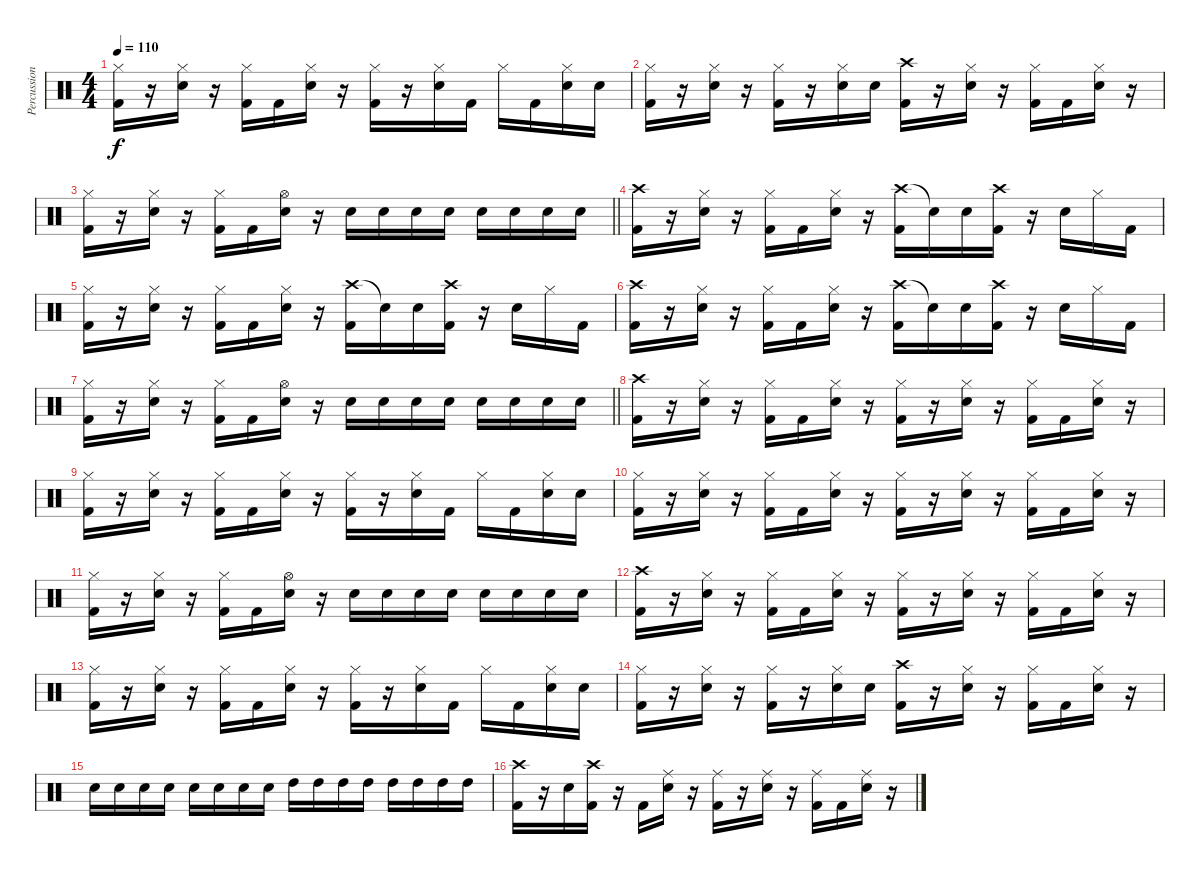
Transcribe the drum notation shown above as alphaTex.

\track ("Percussion" "Percussion") {instrument percussion}
\staff {score}
\articulation defaults
\ts (4 4)
\tempo 110
\clef neutral
\ks c
("Hi-Hat (closed)" "Kick (hit) 2").16{dy f} r.16 ("Hi-Hat (closed)" "Electric Snare (hit)").16 r.16 ("Hi-Hat (closed)" "Kick (hit) 2").16 "Kick (hit) 2".16 ("Hi-Hat (closed)" "Electric Snare (hit)").16 r.16 ("Hi-Hat (closed)" "Kick (hit) 2").16 r.16 ("Hi-Hat (closed)" "Electric Snare (hit)").16 "Kick (hit) 2".16 "Hi-Hat (closed)".16 "Kick (hit) 2".16 ("Hi-Hat (closed)" "Electric Snare (hit)").16 "Electric Snare (hit)".16 |
("Hi-Hat (closed)" "Kick (hit) 2").16 r.16 ("Hi-Hat (closed)" "Electric Snare (hit)").16 r.16 ("Hi-Hat (closed)" "Kick (hit) 2").16 r.16 ("Hi-Hat (closed)" "Electric Snare (hit)").16 "Electric Snare (hit)".16 ("Crash high (hit)" "Kick (hit) 2").16 r.16 ("Hi-Hat (closed)" "Electric Snare (hit)").16 r.16 ("Hi-Hat (closed)" "Kick (hit) 2").16 "Kick (hit) 2".16 ("Hi-Hat (closed)" "Electric Snare (hit)").16 r.16 |
\barLineRight lightlight
("Hi-Hat (closed)" "Kick (hit) 2").16 r.16 ("Hi-Hat (closed)" "Electric Snare (hit)").16 r.16 ("Hi-Hat (closed)" "Kick (hit) 2").16 "Kick (hit) 2".16 ("Hi-Hat (open)" "Electric Snare (hit)").16 r.16 "Electric Snare (hit)".16 "Electric Snare (hit)".16 "Electric Snare (hit)".16 "Electric Snare (hit)".16 "Electric Snare (hit)".16 "Electric Snare (hit)".16 "Electric Snare (hit)".16 "Electric Snare (hit)".16 |
("Crash high (hit)" "Kick (hit) 2").16 r.16 ("Hi-Hat (closed)" "Electric Snare (hit)").16 r.16 ("Hi-Hat (closed)" "Kick (hit) 2").16 "Kick (hit) 2".16 ("Hi-Hat (closed)" "Electric Snare (hit)").16 r.16 ("Crash high (hit)" "Kick (hit) 2").16 "Snare (hit)"{t}.16 "Electric Snare (hit)".16 ("Crash high (hit)" "Kick (hit) 2").16 r.16 "Electric Snare (hit)".16 "Hi-Hat (closed)".16 "Kick (hit) 2".16 |
("Hi-Hat (closed)" "Kick (hit) 2").16 r.16 ("Hi-Hat (closed)" "Electric Snare (hit)").16 r.16 ("Hi-Hat (closed)" "Kick (hit) 2").16 "Kick (hit) 2".16 ("Hi-Hat (closed)" "Electric Snare (hit)").16 r.16 ("Crash high (hit)" "Kick (hit) 2").16 "Snare (hit)"{t}.16 "Electric Snare (hit)".16 ("Crash high (hit)" "Kick (hit) 2").16 r.16 "Electric Snare (hit)".16 "Hi-Hat (closed)".16 "Kick (hit) 2".16 |
("Crash high (hit)" "Kick (hit) 2").16 r.16 ("Hi-Hat (closed)" "Electric Snare (hit)").16 r.16 ("Hi-Hat (closed)" "Kick (hit) 2").16 "Kick (hit) 2".16 ("Hi-Hat (closed)" "Electric Snare (hit)").16 r.16 ("Crash high (hit)" "Kick (hit) 2").16 "Snare (hit)"{t}.16 "Electric Snare (hit)".16 ("Crash high (hit)" "Kick (hit) 2").16 r.16 "Electric Snare (hit)".16 "Hi-Hat (closed)".16 "Kick (hit) 2".16 |
\barLineRight lightlight
("Hi-Hat (closed)" "Kick (hit) 2").16 r.16 ("Hi-Hat (closed)" "Electric Snare (hit)").16 r.16 ("Hi-Hat (closed)" "Kick (hit) 2").16 "Kick (hit) 2".16 ("Hi-Hat (open)" "Electric Snare (hit)").16 r.16 "Electric Snare (hit)".16 "Electric Snare (hit)".16 "Electric Snare (hit)".16 "Electric Snare (hit)".16 "Electric Snare (hit)".16 "Electric Snare (hit)".16 "Electric Snare (hit)".16 "Electric Snare (hit)".16 |
("Crash high (hit)" "Kick (hit) 2").16 r.16 ("Hi-Hat (closed)" "Electric Snare (hit)").16 r.16 ("Hi-Hat (closed)" "Kick (hit) 2").16 "Kick (hit) 2".16 ("Hi-Hat (closed)" "Electric Snare (hit)").16 r.16 ("Hi-Hat (closed)" "Kick (hit) 2").16 r.16 ("Hi-Hat (closed)" "Electric Snare (hit)").16 r.16 ("Hi-Hat (closed)" "Kick (hit) 2").16 "Kick (hit) 2".16 ("Hi-Hat (closed)" "Electric Snare (hit)").16 r.16 |
("Hi-Hat (closed)" "Kick (hit) 2").16 r.16 ("Hi-Hat (closed)" "Electric Snare (hit)").16 r.16 ("Hi-Hat (closed)" "Kick (hit) 2").16 "Kick (hit) 2".16 ("Hi-Hat (closed)" "Electric Snare (hit)").16 r.16 ("Hi-Hat (closed)" "Kick (hit) 2").16 r.16 ("Hi-Hat (closed)" "Electric Snare (hit)").16 "Kick (hit) 2".16 "Hi-Hat (closed)".16 "Kick (hit) 2".16 ("Hi-Hat (closed)" "Electric Snare (hit)").16 "Electric Snare (hit)".16 |
("Hi-Hat (closed)" "Kick (hit) 2").16 r.16 ("Hi-Hat (closed)" "Electric Snare (hit)").16 r.16 ("Hi-Hat (closed)" "Kick (hit) 2").16 "Kick (hit) 2".16 ("Hi-Hat (closed)" "Electric Snare (hit)").16 r.16 ("Hi-Hat (closed)" "Kick (hit) 2").16 r.16 ("Hi-Hat (closed)" "Electric Snare (hit)").16 r.16 ("Hi-Hat (closed)" "Kick (hit) 2").16 "Kick (hit) 2".16 ("Hi-Hat (closed)" "Electric Snare (hit)").16 r.16 |
("Hi-Hat (closed)" "Kick (hit) 2").16 r.16 ("Hi-Hat (closed)" "Electric Snare (hit)").16 r.16 ("Hi-Hat (closed)" "Kick (hit) 2").16 "Kick (hit) 2".16 ("Hi-Hat (open)" "Electric Snare (hit)").16 r.16 "Electric Snare (hit)".16 "Electric Snare (hit)".16 "Electric Snare (hit)".16 "Electric Snare (hit)".16 "Electric Snare (hit)".16 "Electric Snare (hit)".16 "Electric Snare (hit)".16 "Electric Snare (hit)".16 |
("Crash high (hit)" "Kick (hit) 2").16 r.16 ("Hi-Hat (closed)" "Electric Snare (hit)").16 r.16 ("Hi-Hat (closed)" "Kick (hit) 2").16 "Kick (hit) 2".16 ("Hi-Hat (closed)" "Electric Snare (hit)").16 r.16 ("Hi-Hat (closed)" "Kick (hit) 2").16 r.16 ("Hi-Hat (closed)" "Electric Snare (hit)").16 r.16 ("Hi-Hat (closed)" "Kick (hit) 2").16 "Kick (hit) 2".16 ("Hi-Hat (closed)" "Electric Snare (hit)").16 r.16 |
("Hi-Hat (closed)" "Kick (hit) 2").16 r.16 ("Hi-Hat (closed)" "Electric Snare (hit)").16 r.16 ("Hi-Hat (closed)" "Kick (hit) 2").16 "Kick (hit) 2".16 ("Hi-Hat (closed)" "Electric Snare (hit)").16 r.16 ("Hi-Hat (closed)" "Kick (hit) 2").16 r.16 ("Hi-Hat (closed)" "Electric Snare (hit)").16 "Kick (hit) 2".16 "Hi-Hat (closed)".16 "Kick (hit) 2".16 ("Hi-Hat (closed)" "Electric Snare (hit)").16 "Electric Snare (hit)".16 |
("Hi-Hat (closed)" "Kick (hit) 2").16 r.16 ("Hi-Hat (closed)" "Electric Snare (hit)").16 r.16 ("Hi-Hat (closed)" "Kick (hit) 2").16 r.16 ("Hi-Hat (closed)" "Electric Snare (hit)").16 "Electric Snare (hit)".16 ("Crash high (hit)" "Kick (hit) 2").16 r.16 ("Hi-Hat (closed)" "Electric Snare (hit)").16 r.16 ("Hi-Hat (closed)" "Kick (hit) 2").16 "Kick (hit) 2".16 ("Hi-Hat (closed)" "Electric Snare (hit)").16 r.16 |
"Electric Snare (hit)".16 "Electric Snare (hit)".16 "Electric Snare (hit)".16 "Electric Snare (hit)".16 "Electric Snare (hit)".16 "Electric Snare (hit)".16 "Electric Snare (hit)".16 "Electric Snare (hit)".16 "High Tom (hit)".16 "High Tom (hit)".16 "High Tom (hit)".16 "High Tom (hit)".16 "High Tom (hit)".16 "High Tom (hit)".16 "High Tom (hit)".16 "High Tom (hit)".16 |
("Crash high (hit)" "Kick (hit) 2").16 r.16 "Electric Snare (hit)".16 ("Crash high (hit)" "Kick (hit) 2").16 r.16 "Kick (hit) 2".16 ("Ride (middle)" "Electric Snare (hit)").16 r.16 ("Ride (middle)" "Kick (hit) 2").16 r.16 ("Ride (middle)" "Electric Snare (hit)").16 r.16 ("Ride (middle)" "Kick (hit) 2").16 "Kick (hit) 2".16 ("Ride (middle)" "Electric Snare (hit)").16 r.16
